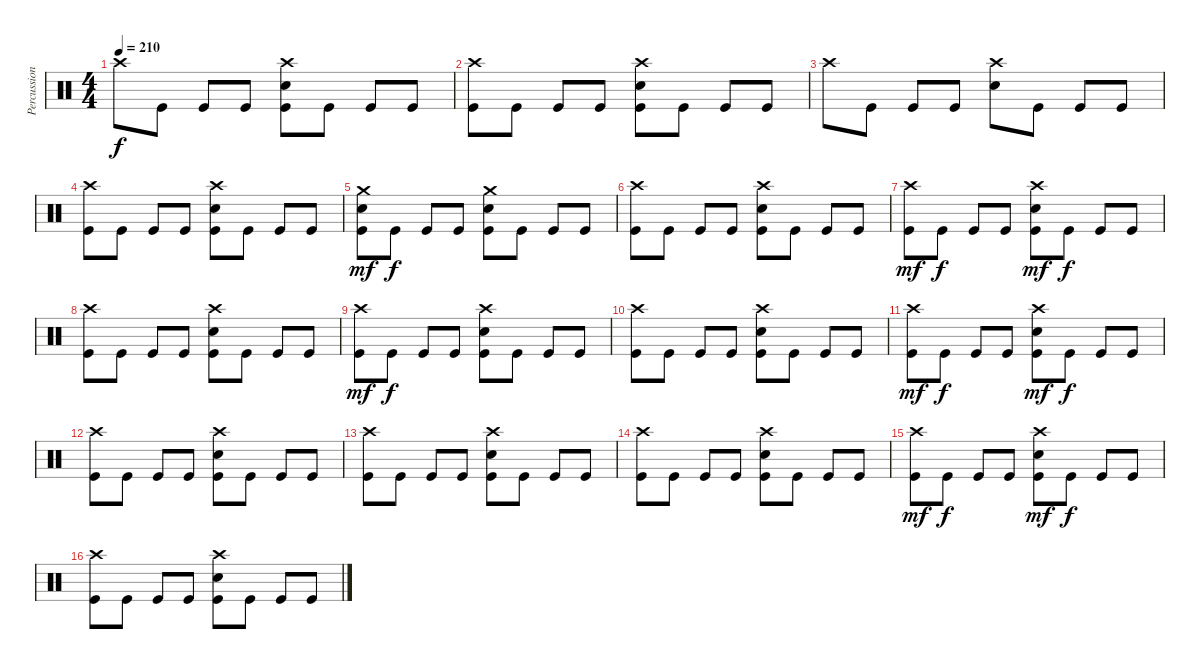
\track ("Percussion" "Percussion") {instrument percussion}
\staff {score}
\articulation defaults
\ts (4 4)
\tempo 210
\clef neutral
\ks c "Crash high (hit)".8{dy f} "Kick (hit)".8 "Kick (hit)".8 "Kick (hit)".8
("Crash high (hit)" "Snare (hit) 2" "Kick (hit)").8 "Kick (hit)".8 "Kick (hit)".8 "Kick (hit)".8 |
("Crash high (hit)" "Kick (hit)").8 "Kick (hit)".8 "Kick (hit)".8 "Kick (hit)".8 ("Crash high (hit)" "Snare (hit) 2" "Kick (hit)").8 "Kick (hit)".8 "Kick (hit)".8 "Kick (hit)".8 |
"Crash high (hit)".8 "Kick (hit)".8 "Kick (hit)".8 "Kick (hit)".8 ("Crash high (hit)" "Snare (hit) 2").8 "Kick (hit)".8 "Kick (hit)".8 "Kick (hit)".8 |
("Crash high (hit)" "Kick (hit)").8 "Kick (hit)".8 "Kick (hit)".8 "Kick (hit)".8 ("Crash high (hit)" "Snare (hit) 2" "Kick (hit)").8 "Kick (hit)".8 "Kick (hit)".8 "Kick (hit)".8 |
("Crash medium (hit)" "Snare (hit) 2" "Kick (hit)").8{dy mf} "Kick (hit)".8{dy f} "Kick (hit)".8 "Kick (hit)".8 ("Crash medium (hit)" "Snare (hit) 2" "Kick (hit)").8 "Kick (hit)".8 "Kick (hit)".8 "Kick (hit)".8 |
("Crash high (hit)" "Kick (hit)").8 "Kick (hit)".8 "Kick (hit)".8 "Kick (hit)".8 ("Crash high (hit)" "Snare (hit) 2" "Kick (hit)").8 "Kick (hit)".8 "Kick (hit)".8 "Kick (hit)".8 |
("Crash high (hit)" "Kick (hit)").8{dy mf} "Kick (hit)".8{dy f} "Kick (hit)".8 "Kick (hit)".8 ("Crash high (hit)" "Snare (hit) 2" "Kick (hit)").8{dy mf} "Kick (hit)".8{dy f} "Kick (hit)".8 "Kick (hit)".8 |
("Crash high (hit)" "Kick (hit)").8 "Kick (hit)".8 "Kick (hit)".8 "Kick (hit)".8 ("Crash high (hit)" "Snare (hit) 2" "Kick (hit)").8 "Kick (hit)".8 "Kick (hit)".8 "Kick (hit)".8 |
("Crash high (hit)" "Kick (hit)").8{dy mf} "Kick (hit)".8{dy f} "Kick (hit)".8 "Kick (hit)".8 ("Crash high (hit)" "Snare (hit) 2" "Kick (hit)").8 "Kick (hit)".8 "Kick (hit)".8 "Kick (hit)".8 |
("Crash high (hit)" "Kick (hit)").8 "Kick (hit)".8 "Kick (hit)".8 "Kick (hit)".8 ("Crash high (hit)" "Snare (hit) 2" "Kick (hit)").8 "Kick (hit)".8 "Kick (hit)".8 "Kick (hit)".8 |
("Crash high (hit)" "Kick (hit)").8{dy mf} "Kick (hit)".8{dy f} "Kick (hit)".8 "Kick (hit)".8 ("Crash high (hit)" "Snare (hit) 2" "Kick (hit)").8{dy mf} "Kick (hit)".8{dy f} "Kick (hit)".8 "Kick (hit)".8 |
("Crash high (hit)" "Kick (hit)").8 "Kick (hit)".8 "Kick (hit)".8 "Kick (hit)".8 ("Crash high (hit)" "Snare (hit) 2" "Kick (hit)").8 "Kick (hit)".8 "Kick (hit)".8 "Kick (hit)".8 |
("Crash high (hit)" "Kick (hit)").8 "Kick (hit)".8 "Kick (hit)".8 "Kick (hit)".8 ("Crash high (hit)" "Snare (hit) 2" "Kick (hit)").8 "Kick (hit)".8 "Kick (hit)".8 "Kick (hit)".8 |
("Crash high (hit)" "Kick (hit)").8 "Kick (hit)".8 "Kick (hit)".8 "Kick (hit)".8 ("Crash high (hit)" "Snare (hit) 2" "Kick (hit)").8 "Kick (hit)".8 "Kick (hit)".8 "Kick (hit)".8 |
("Crash high (hit)" "Kick (hit)").8{dy mf} "Kick (hit)".8{dy f} "Kick (hit)".8 "Kick (hit)".8 ("Crash high (hit)" "Snare (hit) 2" "Kick (hit)").8{dy mf} "Kick (hit)".8{dy f} "Kick (hit)".8 "Kick (hit)".8 |
("Crash high (hit)" "Kick (hit)").8 "Kick (hit)".8 "Kick (hit)".8 "Kick (hit)".8 ("Crash high (hit)" "Snare (hit) 2" "Kick (hit)").8 "Kick (hit)".8 "Kick (hit)".8 "Kick (hit)".8
